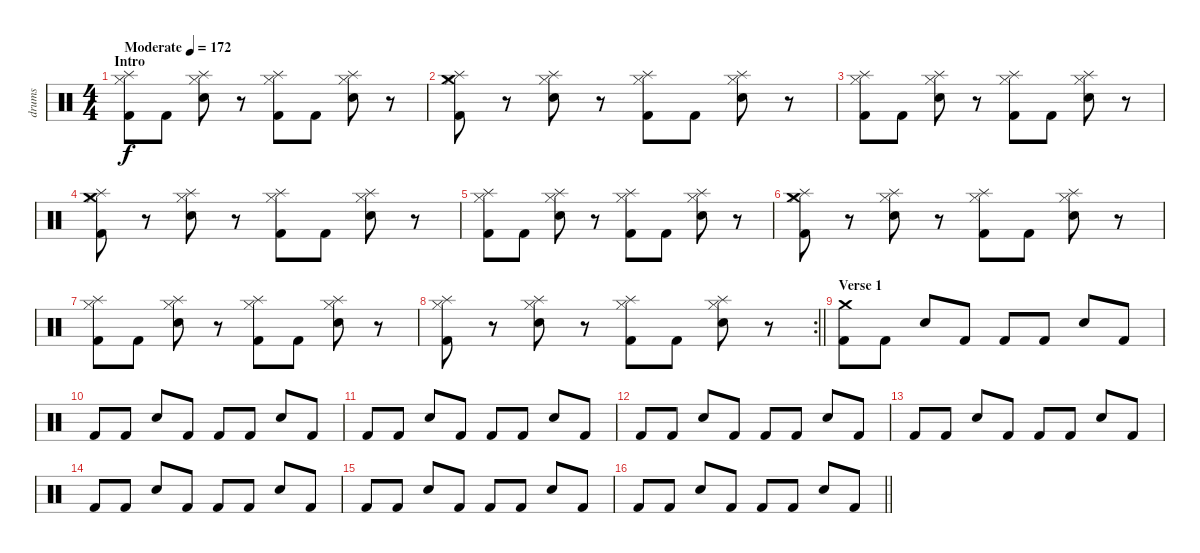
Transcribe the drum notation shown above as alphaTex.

\track ("drums" "drums") {instrument percussion}
\staff {score}
\articulation defaults
\ts (4 4)
\section ("" "Intro")
\tempo (172 "Moderate")
\clef neutral
\ks c
("Hi-Hat (closed)" "Splash (hit)" "Kick (hit) 2").8{dy f} "Kick (hit) 2".8 ("Hi-Hat (closed)" "Splash (hit)" "Electric Snare (hit)").8 r.8 ("Hi-Hat (closed)" "Splash (hit)" "Kick (hit) 2").8 "Kick (hit) 2".8 ("Hi-Hat (closed)" "Splash (hit)" "Electric Snare (hit)").8 r.8 |
("Crash medium (hit)" "Hi-Hat (closed)" "Splash (hit)" "Kick (hit) 2").8 r.8 ("Hi-Hat (closed)" "Splash (hit)" "Electric Snare (hit)").8 r.8 ("Hi-Hat (closed)" "Splash (hit)" "Kick (hit) 2").8 "Kick (hit) 2".8 ("Hi-Hat (closed)" "Splash (hit)" "Electric Snare (hit)").8 r.8 |
("Hi-Hat (closed)" "Splash (hit)" "Kick (hit) 2").8 "Kick (hit) 2".8 ("Hi-Hat (closed)" "Splash (hit)" "Electric Snare (hit)").8 r.8 ("Hi-Hat (closed)" "Splash (hit)" "Kick (hit) 2").8 "Kick (hit) 2".8 ("Hi-Hat (closed)" "Splash (hit)" "Electric Snare (hit)").8 r.8 |
("Crash medium (hit)" "Hi-Hat (closed)" "Splash (hit)" "Kick (hit) 2").8 r.8 ("Hi-Hat (closed)" "Splash (hit)" "Electric Snare (hit)").8 r.8 ("Hi-Hat (closed)" "Splash (hit)" "Kick (hit) 2").8 "Kick (hit) 2".8 ("Hi-Hat (closed)" "Splash (hit)" "Electric Snare (hit)").8 r.8 |
("Hi-Hat (closed)" "Splash (hit)" "Kick (hit) 2").8 "Kick (hit) 2".8 ("Hi-Hat (closed)" "Splash (hit)" "Electric Snare (hit)").8 r.8 ("Hi-Hat (closed)" "Splash (hit)" "Kick (hit) 2").8 "Kick (hit) 2".8 ("Hi-Hat (closed)" "Splash (hit)" "Electric Snare (hit)").8 r.8 |
("Crash medium (hit)" "Hi-Hat (closed)" "Splash (hit)" "Kick (hit) 2").8 r.8 ("Hi-Hat (closed)" "Splash (hit)" "Electric Snare (hit)").8 r.8 ("Hi-Hat (closed)" "Splash (hit)" "Kick (hit) 2").8 "Kick (hit) 2".8 ("Hi-Hat (closed)" "Splash (hit)" "Electric Snare (hit)").8 r.8 |
("Hi-Hat (closed)" "Splash (hit)" "Kick (hit) 2").8 "Kick (hit) 2".8 ("Hi-Hat (closed)" "Splash (hit)" "Electric Snare (hit)").8 r.8 ("Hi-Hat (closed)" "Splash (hit)" "Kick (hit) 2").8 "Kick (hit) 2".8 ("Hi-Hat (closed)" "Splash (hit)" "Electric Snare (hit)").8 r.8 |
\rc 2
\barLineRight lightlight
("Hi-Hat (closed)" "Splash (hit)" "Kick (hit) 2").8 r.8 ("Hi-Hat (closed)" "Splash (hit)" "Electric Snare (hit)").8 r.8 ("Hi-Hat (closed)" "Splash (hit)" "Kick (hit) 2").8 "Kick (hit) 2".8 ("Hi-Hat (closed)" "Splash (hit)" "Electric Snare (hit)").8 r.8 |
\section ("" "Verse 1")
("Crash medium (hit)" "Kick (hit) 2").8 "Kick (hit) 2".8 "Electric Snare (hit)".8 "Kick (hit) 2".8 "Kick (hit) 2".8 "Kick (hit) 2".8 "Electric Snare (hit)".8 "Kick (hit) 2".8 |
"Kick (hit) 2".8 "Kick (hit) 2".8 "Electric Snare (hit)".8 "Kick (hit) 2".8 "Kick (hit) 2".8 "Kick (hit) 2".8 "Electric Snare (hit)".8 "Kick (hit) 2".8 |
"Kick (hit) 2".8 "Kick (hit) 2".8 "Electric Snare (hit)".8 "Kick (hit) 2".8 "Kick (hit) 2".8 "Kick (hit) 2".8 "Electric Snare (hit)".8 "Kick (hit) 2".8 |
"Kick (hit) 2".8 "Kick (hit) 2".8 "Electric Snare (hit)".8 "Kick (hit) 2".8 "Kick (hit) 2".8 "Kick (hit) 2".8 "Electric Snare (hit)".8 "Kick (hit) 2".8 |
"Kick (hit) 2".8 "Kick (hit) 2".8 "Electric Snare (hit)".8 "Kick (hit) 2".8 "Kick (hit) 2".8 "Kick (hit) 2".8 "Electric Snare (hit)".8 "Kick (hit) 2".8 |
"Kick (hit) 2".8 "Kick (hit) 2".8 "Electric Snare (hit)".8 "Kick (hit) 2".8 "Kick (hit) 2".8 "Kick (hit) 2".8 "Electric Snare (hit)".8 "Kick (hit) 2".8 |
"Kick (hit) 2".8 "Kick (hit) 2".8 "Electric Snare (hit)".8 "Kick (hit) 2".8 "Kick (hit) 2".8 "Kick (hit) 2".8 "Electric Snare (hit)".8 "Kick (hit) 2".8 |
\barLineRight lightlight "Kick (hit) 2".8 "Kick (hit) 2".8 "Electric Snare (hit)".8 "Kick (hit) 2".8 "Kick (hit) 2".8 "Kick (hit) 2".8 "Electric Snare (hit)".8 "Kick (hit) 2".8
